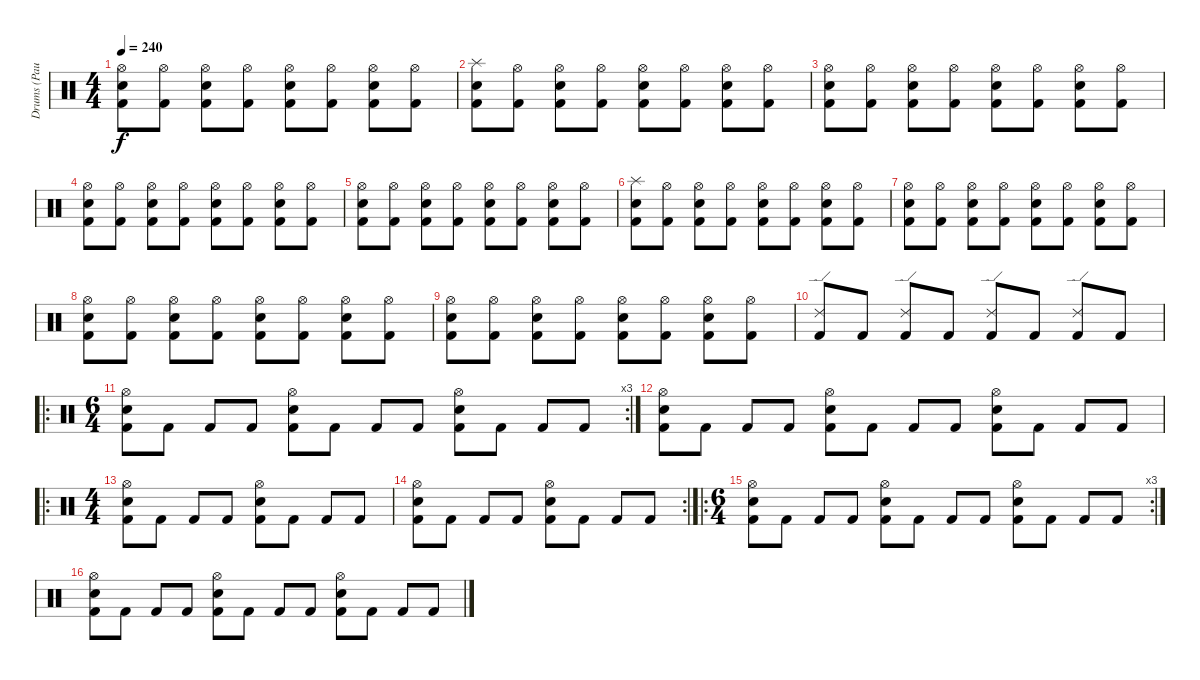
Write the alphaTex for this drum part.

\track ("Drums (Paul)" "Drums (Pau") {instrument percussion}
\staff {score}
\articulation defaults
\ts (4 4)
\tempo 240
\clef neutral
\ks c
("Hi-Hat (open)" "Snare (hit) 2" "Kick (hit) 2").8{dy f} ("Hi-Hat (open)" "Kick (hit) 2").8 ("Hi-Hat (open)" "Snare (hit) 2" "Kick (hit) 2").8 ("Hi-Hat (open)" "Kick (hit) 2").8 ("Hi-Hat (open)" "Snare (hit) 2" "Kick (hit) 2").8 ("Hi-Hat (open)" "Kick (hit) 2").8 ("Hi-Hat (open)" "Snare (hit) 2" "Kick (hit) 2").8 ("Hi-Hat (open)" "Kick (hit) 2").8 |
("Splash (hit)" "Snare (hit) 2" "Kick (hit) 2").8 ("Hi-Hat (open)" "Kick (hit) 2").8 ("Hi-Hat (open)" "Snare (hit) 2" "Kick (hit) 2").8 ("Hi-Hat (open)" "Kick (hit) 2").8 ("Hi-Hat (open)" "Snare (hit) 2" "Kick (hit) 2").8 ("Hi-Hat (open)" "Kick (hit) 2").8 ("Hi-Hat (open)" "Snare (hit) 2" "Kick (hit) 2").8 ("Hi-Hat (open)" "Kick (hit) 2").8 |
("Hi-Hat (open)" "Snare (hit) 2" "Kick (hit) 2").8 ("Hi-Hat (open)" "Kick (hit) 2").8 ("Hi-Hat (open)" "Snare (hit) 2" "Kick (hit) 2").8 ("Hi-Hat (open)" "Kick (hit) 2").8 ("Hi-Hat (open)" "Snare (hit) 2" "Kick (hit) 2").8 ("Hi-Hat (open)" "Kick (hit) 2").8 ("Hi-Hat (open)" "Snare (hit) 2" "Kick (hit) 2").8 ("Hi-Hat (open)" "Kick (hit) 2").8 |
("Hi-Hat (open)" "Snare (hit) 2" "Kick (hit) 2").8 ("Hi-Hat (open)" "Kick (hit) 2").8 ("Hi-Hat (open)" "Snare (hit) 2" "Kick (hit) 2").8 ("Hi-Hat (open)" "Kick (hit) 2").8 ("Hi-Hat (open)" "Snare (hit) 2" "Kick (hit) 2").8 ("Hi-Hat (open)" "Kick (hit) 2").8 ("Hi-Hat (open)" "Snare (hit) 2" "Kick (hit) 2").8 ("Hi-Hat (open)" "Kick (hit) 2").8 |
("Hi-Hat (open)" "Snare (hit) 2" "Kick (hit) 2").8 ("Hi-Hat (open)" "Kick (hit) 2").8 ("Hi-Hat (open)" "Snare (hit) 2" "Kick (hit) 2").8 ("Hi-Hat (open)" "Kick (hit) 2").8 ("Hi-Hat (open)" "Snare (hit) 2" "Kick (hit) 2").8 ("Hi-Hat (open)" "Kick (hit) 2").8 ("Hi-Hat (open)" "Snare (hit) 2" "Kick (hit) 2").8 ("Hi-Hat (open)" "Kick (hit) 2").8 |
("Splash (hit)" "Snare (hit) 2" "Kick (hit) 2").8 ("Hi-Hat (open)" "Kick (hit) 2").8 ("Hi-Hat (open)" "Snare (hit) 2" "Kick (hit) 2").8 ("Hi-Hat (open)" "Kick (hit) 2").8 ("Hi-Hat (open)" "Snare (hit) 2" "Kick (hit) 2").8 ("Hi-Hat (open)" "Kick (hit) 2").8 ("Hi-Hat (open)" "Snare (hit) 2" "Kick (hit) 2").8 ("Hi-Hat (open)" "Kick (hit) 2").8 |
("Hi-Hat (open)" "Snare (hit) 2" "Kick (hit) 2").8 ("Hi-Hat (open)" "Kick (hit) 2").8 ("Hi-Hat (open)" "Snare (hit) 2" "Kick (hit) 2").8 ("Hi-Hat (open)" "Kick (hit) 2").8 ("Hi-Hat (open)" "Snare (hit) 2" "Kick (hit) 2").8 ("Hi-Hat (open)" "Kick (hit) 2").8 ("Hi-Hat (open)" "Snare (hit) 2" "Kick (hit) 2").8 ("Hi-Hat (open)" "Kick (hit) 2").8 |
("Hi-Hat (open)" "Snare (hit) 2" "Kick (hit) 2").8 ("Hi-Hat (open)" "Kick (hit) 2").8 ("Hi-Hat (open)" "Snare (hit) 2" "Kick (hit) 2").8 ("Hi-Hat (open)" "Kick (hit) 2").8 ("Hi-Hat (open)" "Snare (hit) 2" "Kick (hit) 2").8 ("Hi-Hat (open)" "Kick (hit) 2").8 ("Hi-Hat (open)" "Snare (hit) 2" "Kick (hit) 2").8 ("Hi-Hat (open)" "Kick (hit) 2").8 |
("Hi-Hat (open)" "Snare (hit) 2" "Kick (hit) 2").8 ("Hi-Hat (open)" "Kick (hit) 2").8 ("Hi-Hat (open)" "Snare (hit) 2" "Kick (hit) 2").8 ("Hi-Hat (open)" "Kick (hit) 2").8 ("Hi-Hat (open)" "Snare (hit) 2" "Kick (hit) 2").8 ("Hi-Hat (open)" "Kick (hit) 2").8 ("Hi-Hat (open)" "Snare (hit) 2" "Kick (hit) 2").8 ("Hi-Hat (open)" "Kick (hit) 2").8 |
("Ride (edge) 2" "Kick (hit) 2").8 "Kick (hit) 2".8 ("Ride (edge) 2" "Kick (hit) 2").8 "Kick (hit) 2".8 ("Ride (edge) 2" "Kick (hit) 2").8 "Kick (hit) 2".8 ("Ride (edge) 2" "Kick (hit) 2").8 "Kick (hit) 2".8 |
\ro
\rc 3
\ts (6 4)
("Hi-Hat (open)" "Snare (hit) 2" "Kick (hit) 2").8 "Kick (hit) 2".8 "Kick (hit) 2".8 "Kick (hit) 2".8 ("Hi-Hat (open)" "Snare (hit) 2" "Kick (hit) 2").8 "Kick (hit) 2".8 "Kick (hit) 2".8 "Kick (hit) 2".8 ("Hi-Hat (open)" "Snare (hit) 2" "Kick (hit) 2").8 "Kick (hit) 2".8 "Kick (hit) 2".8 "Kick (hit) 2".8 |
("Hi-Hat (open)" "Snare (hit) 2" "Kick (hit) 2").8 "Kick (hit) 2".8 "Kick (hit) 2".8 "Kick (hit) 2".8 ("Hi-Hat (open)" "Snare (hit) 2" "Kick (hit) 2").8 "Kick (hit) 2".8 "Kick (hit) 2".8 "Kick (hit) 2".8 ("Hi-Hat (open)" "Snare (hit) 2" "Kick (hit) 2").8 "Kick (hit) 2".8 "Kick (hit) 2".8 "Kick (hit) 2".8 |
\ro
\ts (4 4)
("Hi-Hat (open)" "Snare (hit) 2" "Kick (hit) 2").8 "Kick (hit) 2".8 "Kick (hit) 2".8 "Kick (hit) 2".8 ("Hi-Hat (open)" "Snare (hit) 2" "Kick (hit) 2").8 "Kick (hit) 2".8 "Kick (hit) 2".8 "Kick (hit) 2".8 |
\rc 2
("Hi-Hat (open)" "Snare (hit) 2" "Kick (hit) 2").8 "Kick (hit) 2".8 "Kick (hit) 2".8 "Kick (hit) 2".8 ("Hi-Hat (open)" "Snare (hit) 2" "Kick (hit) 2").8 "Kick (hit) 2".8 "Kick (hit) 2".8 "Kick (hit) 2".8 |
\ro
\rc 3
\ts (6 4)
("Hi-Hat (open)" "Snare (hit) 2" "Kick (hit) 2").8 "Kick (hit) 2".8 "Kick (hit) 2".8 "Kick (hit) 2".8 ("Hi-Hat (open)" "Snare (hit) 2" "Kick (hit) 2").8 "Kick (hit) 2".8 "Kick (hit) 2".8 "Kick (hit) 2".8 ("Hi-Hat (open)" "Snare (hit) 2" "Kick (hit) 2").8 "Kick (hit) 2".8 "Kick (hit) 2".8 "Kick (hit) 2".8 |
("Hi-Hat (open)" "Snare (hit) 2" "Kick (hit) 2").8 "Kick (hit) 2".8 "Kick (hit) 2".8 "Kick (hit) 2".8 ("Hi-Hat (open)" "Snare (hit) 2" "Kick (hit) 2").8 "Kick (hit) 2".8 "Kick (hit) 2".8 "Kick (hit) 2".8 ("Hi-Hat (open)" "Snare (hit) 2" "Kick (hit) 2").8 "Kick (hit) 2".8 "Kick (hit) 2".8 "Kick (hit) 2".8
